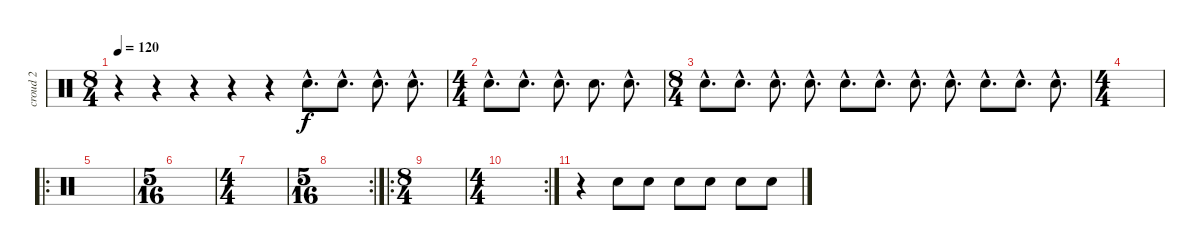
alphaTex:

\track ("croud 2" "croud 2") {instrument percussion}
\staff {score}
\articulation defaults
\ts (8 4)
\tempo 120
\clef neutral
\ks c
r.4{dy f} r.4 r.4 r.4 r.4 "Hand Clap (hit)"{hac}.8{d} "Hand Clap (hit)"{hac}.8{d} "Hand Clap (hit)"{hac}.8{d} "Hand Clap (hit)"{hac}.8{d} |
\ts (4 4)
"Hand Clap (hit)"{hac}.8{d} "Hand Clap (hit)"{hac}.8{d} "Hand Clap (hit)"{hac}.8{d} "Hand Clap (hit)".8{d} "Hand Clap (hit)"{hac}.8{d} |
\ts (8 4)
"Hand Clap (hit)"{hac}.8{d} "Hand Clap (hit)"{hac}.8{d} "Hand Clap (hit)"{hac}.8{d} "Hand Clap (hit)"{hac}.8{d} "Hand Clap (hit)"{hac}.8{d} "Hand Clap (hit)"{hac}.8{d} "Hand Clap (hit)"{hac}.8{d} "Hand Clap (hit)"{hac}.8{d} "Hand Clap (hit)"{hac}.8{d} "Hand Clap (hit)"{hac}.8{d} "Hand Clap (hit)"{hac}.8{d} |
\ts (4 4)
|
\ro
|
\ts (5 16)
|
\ts (4 4)
|
\rc 2
\ts (5 16)
|
\ro
\ts (8 4)
|
\rc 2
\ts (4 4)
|
r.4 "Hand Clap (hit)".8 "Hand Clap (hit)".8 "Hand Clap (hit)".8 "Hand Clap (hit)".8 "Hand Clap (hit)".8 "Hand Clap (hit)".8
